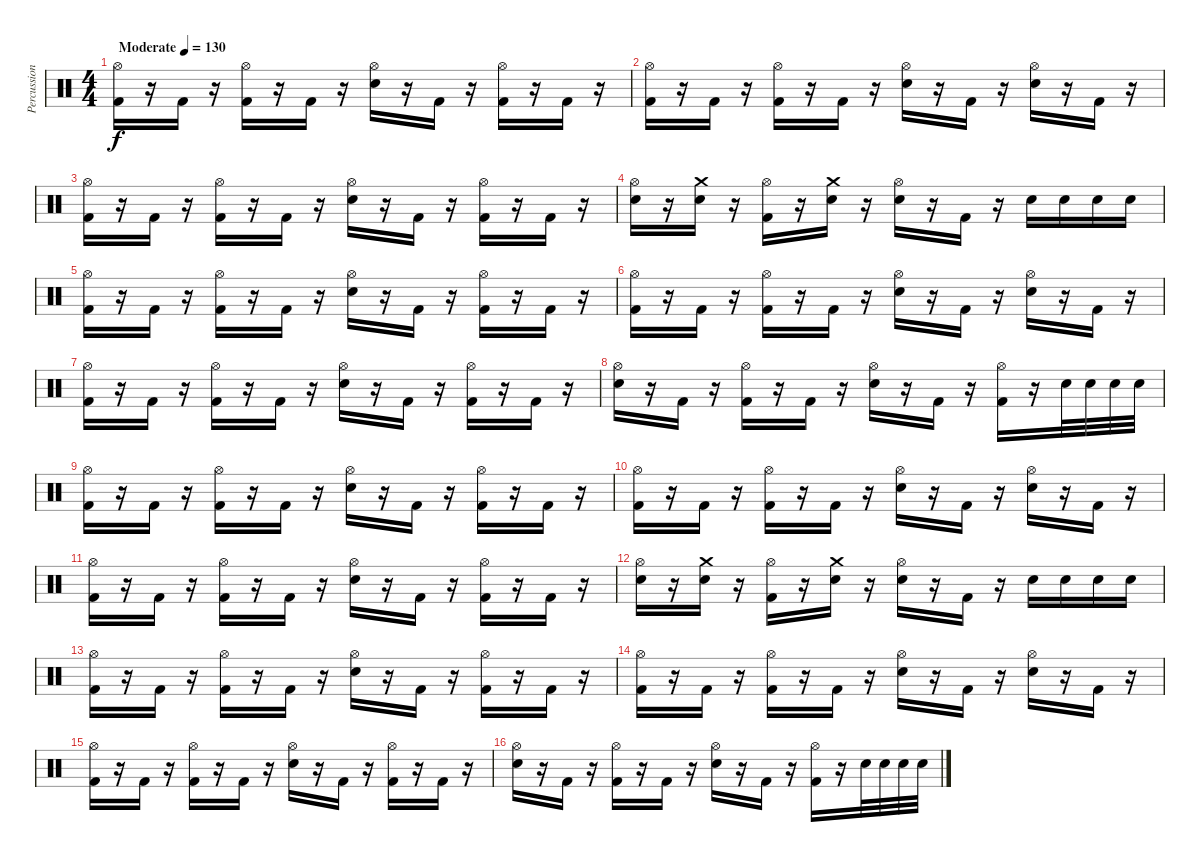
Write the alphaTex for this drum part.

\track ("Percussion" "Percussion") {instrument percussion}
\staff {score}
\articulation defaults
\ts (4 4)
\tempo (130 "Moderate")
\clef neutral
\ks c
("Hi-Hat (open)" "Kick (hit) 2").16{dy f} r.16 "Kick (hit) 2".16 r.16 ("Hi-Hat (open)" "Kick (hit) 2").16 r.16 "Kick (hit) 2".16 r.16 ("Hi-Hat (open)" "Electric Snare (hit)").16 r.16 "Kick (hit) 2".16 r.16 ("Hi-Hat (open)" "Kick (hit) 2").16 r.16 "Kick (hit) 2".16 r.16 |
("Hi-Hat (open)" "Kick (hit) 2").16 r.16 "Kick (hit) 2".16 r.16 ("Hi-Hat (open)" "Kick (hit) 2").16 r.16 "Kick (hit) 2".16 r.16 ("Hi-Hat (open)" "Electric Snare (hit)").16 r.16 "Kick (hit) 2".16 r.16 ("Hi-Hat (open)" "Electric Snare (hit)").16 r.16 "Kick (hit) 2".16 r.16 |
("Hi-Hat (open)" "Kick (hit) 2").16 r.16 "Kick (hit) 2".16 r.16 ("Hi-Hat (open)" "Kick (hit) 2").16 r.16 "Kick (hit) 2".16 r.16 ("Hi-Hat (open)" "Electric Snare (hit)").16 r.16 "Kick (hit) 2".16 r.16 ("Hi-Hat (open)" "Kick (hit) 2").16 r.16 "Kick (hit) 2".16 r.16 |
("Hi-Hat (open)" "Electric Snare (hit)").16 r.16 ("Crash medium (hit)" "Electric Snare (hit)").16 r.16 ("Hi-Hat (open)" "Kick (hit) 2").16 r.16 ("Crash medium (hit)" "Electric Snare (hit)").16 r.16 ("Hi-Hat (open)" "Electric Snare (hit)").16 r.16 "Kick (hit) 2".16 r.16 "Electric Snare (hit)".16 "Electric Snare (hit)".16 "Electric Snare (hit)".16 "Electric Snare (hit)".16 |
("Hi-Hat (open)" "Kick (hit) 2").16 r.16 "Kick (hit) 2".16 r.16 ("Hi-Hat (open)" "Kick (hit) 2").16 r.16 "Kick (hit) 2".16 r.16 ("Hi-Hat (open)" "Electric Snare (hit)").16 r.16 "Kick (hit) 2".16 r.16 ("Hi-Hat (open)" "Kick (hit) 2").16 r.16 "Kick (hit) 2".16 r.16 |
("Hi-Hat (open)" "Kick (hit) 2").16 r.16 "Kick (hit) 2".16 r.16 ("Hi-Hat (open)" "Kick (hit) 2").16 r.16 "Kick (hit) 2".16 r.16 ("Hi-Hat (open)" "Electric Snare (hit)").16 r.16 "Kick (hit) 2".16 r.16 ("Hi-Hat (open)" "Electric Snare (hit)").16 r.16 "Kick (hit) 2".16 r.16 |
("Hi-Hat (open)" "Kick (hit) 2").16 r.16 "Kick (hit) 2".16 r.16 ("Hi-Hat (open)" "Kick (hit) 2").16 r.16 "Kick (hit) 2".16 r.16 ("Hi-Hat (open)" "Electric Snare (hit)").16 r.16 "Kick (hit) 2".16 r.16 ("Hi-Hat (open)" "Kick (hit) 2").16 r.16 "Kick (hit) 2".16 r.16 |
("Hi-Hat (open)" "Electric Snare (hit)").16 r.16 "Kick (hit) 2".16 r.16 ("Hi-Hat (open)" "Kick (hit) 2").16 r.16 "Kick (hit) 2".16 r.16 ("Hi-Hat (open)" "Electric Snare (hit)").16 r.16 "Kick (hit) 2".16 r.16 ("Hi-Hat (open)" "Kick (hit) 2").16 r.16 "Electric Snare (hit)".32 "Electric Snare (hit)".32 "Electric Snare (hit)".32 "Electric Snare (hit)".32 |
("Hi-Hat (open)" "Kick (hit) 2").16 r.16 "Kick (hit) 2".16 r.16 ("Hi-Hat (open)" "Kick (hit) 2").16 r.16 "Kick (hit) 2".16 r.16 ("Hi-Hat (open)" "Electric Snare (hit)").16 r.16 "Kick (hit) 2".16 r.16 ("Hi-Hat (open)" "Kick (hit) 2").16 r.16 "Kick (hit) 2".16 r.16 |
("Hi-Hat (open)" "Kick (hit) 2").16 r.16 "Kick (hit) 2".16 r.16 ("Hi-Hat (open)" "Kick (hit) 2").16 r.16 "Kick (hit) 2".16 r.16 ("Hi-Hat (open)" "Electric Snare (hit)").16 r.16 "Kick (hit) 2".16 r.16 ("Hi-Hat (open)" "Electric Snare (hit)").16 r.16 "Kick (hit) 2".16 r.16 |
("Hi-Hat (open)" "Kick (hit) 2").16 r.16 "Kick (hit) 2".16 r.16 ("Hi-Hat (open)" "Kick (hit) 2").16 r.16 "Kick (hit) 2".16 r.16 ("Hi-Hat (open)" "Electric Snare (hit)").16 r.16 "Kick (hit) 2".16 r.16 ("Hi-Hat (open)" "Kick (hit) 2").16 r.16 "Kick (hit) 2".16 r.16 |
("Hi-Hat (open)" "Electric Snare (hit)").16 r.16 ("Crash medium (hit)" "Electric Snare (hit)").16 r.16 ("Hi-Hat (open)" "Kick (hit) 2").16 r.16 ("Crash medium (hit)" "Electric Snare (hit)").16 r.16 ("Hi-Hat (open)" "Electric Snare (hit)").16 r.16 "Kick (hit) 2".16 r.16 "Electric Snare (hit)".16 "Electric Snare (hit)".16 "Electric Snare (hit)".16 "Electric Snare (hit)".16 |
("Hi-Hat (open)" "Kick (hit) 2").16 r.16 "Kick (hit) 2".16 r.16 ("Hi-Hat (open)" "Kick (hit) 2").16 r.16 "Kick (hit) 2".16 r.16 ("Hi-Hat (open)" "Electric Snare (hit)").16 r.16 "Kick (hit) 2".16 r.16 ("Hi-Hat (open)" "Kick (hit) 2").16 r.16 "Kick (hit) 2".16 r.16 |
("Hi-Hat (open)" "Kick (hit) 2").16 r.16 "Kick (hit) 2".16 r.16 ("Hi-Hat (open)" "Kick (hit) 2").16 r.16 "Kick (hit) 2".16 r.16 ("Hi-Hat (open)" "Electric Snare (hit)").16 r.16 "Kick (hit) 2".16 r.16 ("Hi-Hat (open)" "Electric Snare (hit)").16 r.16 "Kick (hit) 2".16 r.16 |
("Hi-Hat (open)" "Kick (hit) 2").16 r.16 "Kick (hit) 2".16 r.16 ("Hi-Hat (open)" "Kick (hit) 2").16 r.16 "Kick (hit) 2".16 r.16 ("Hi-Hat (open)" "Electric Snare (hit)").16 r.16 "Kick (hit) 2".16 r.16 ("Hi-Hat (open)" "Kick (hit) 2").16 r.16 "Kick (hit) 2".16 r.16 |
("Hi-Hat (open)" "Electric Snare (hit)").16 r.16 "Kick (hit) 2".16 r.16 ("Hi-Hat (open)" "Kick (hit) 2").16 r.16 "Kick (hit) 2".16 r.16 ("Hi-Hat (open)" "Electric Snare (hit)").16 r.16 "Kick (hit) 2".16 r.16 ("Hi-Hat (open)" "Kick (hit) 2").16 r.16 "Electric Snare (hit)".32 "Electric Snare (hit)".32 "Electric Snare (hit)".32 "Electric Snare (hit)".32
